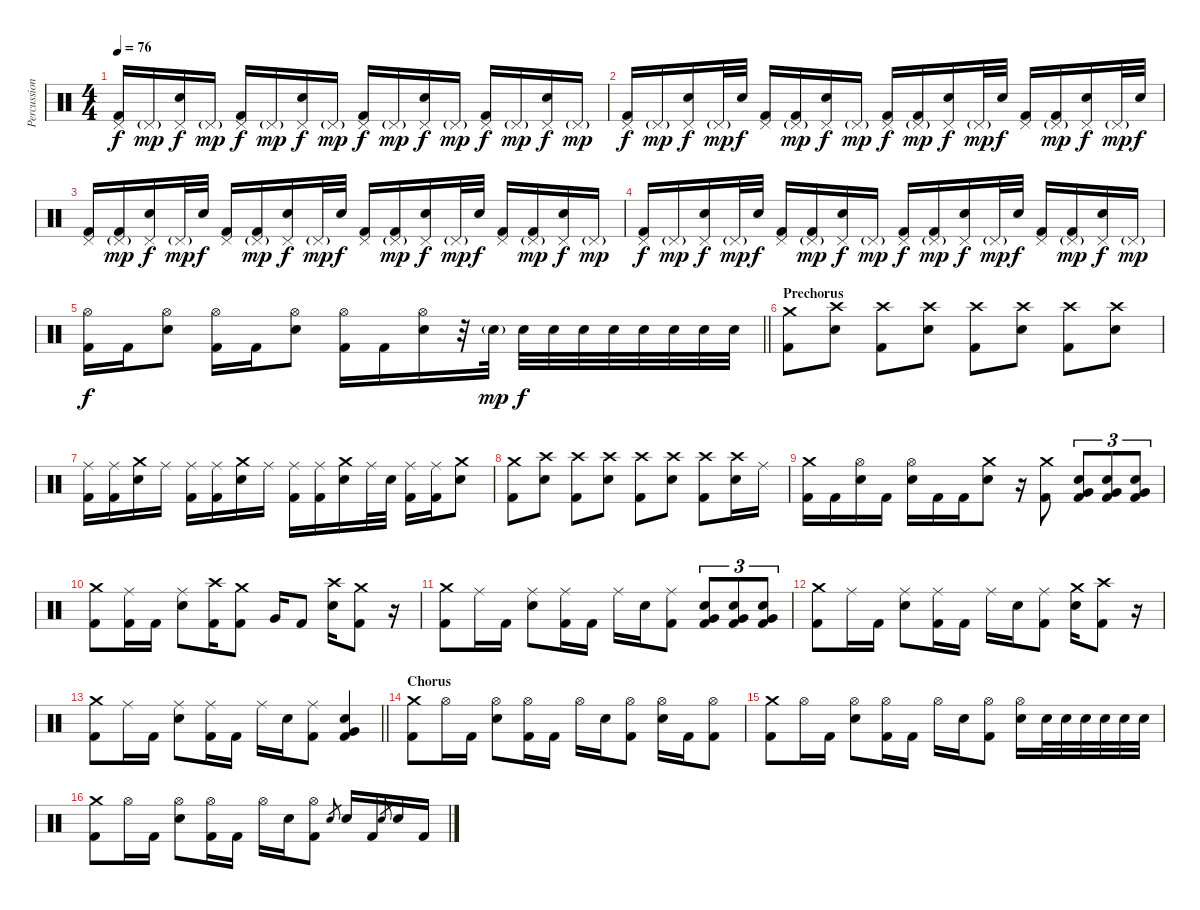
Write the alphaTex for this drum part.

\track ("Percussion" "Percussion") {instrument percussion}
\staff {score}
\articulation defaults
\ts (4 4)
\tempo 76
\clef neutral
\ks c
("Pedal Hi-Hat (hit)" "Kick (hit) 2").16{dy f} "Pedal Hi-Hat (hit)"{g}.16{dy mp} ("Pedal Hi-Hat (hit)" "Electric Snare (hit)").16{dy f} "Pedal Hi-Hat (hit)"{g}.16{dy mp} ("Pedal Hi-Hat (hit)" "Kick (hit) 2").16{dy f} "Pedal Hi-Hat (hit)"{g}.16{dy mp} ("Pedal Hi-Hat (hit)" "Electric Snare (hit)").16{dy f} "Pedal Hi-Hat (hit)"{g}.16{dy mp} ("Pedal Hi-Hat (hit)" "Kick (hit) 2").16{dy f} "Pedal Hi-Hat (hit)"{g}.16{dy mp} ("Pedal Hi-Hat (hit)" "Electric Snare (hit)").16{dy f} "Pedal Hi-Hat (hit)"{g}.16{dy mp} ("Pedal Hi-Hat (hit)" "Kick (hit) 2").16{dy f} "Pedal Hi-Hat (hit)"{g}.16{dy mp} ("Pedal Hi-Hat (hit)" "Electric Snare (hit)").16{dy f} "Pedal Hi-Hat (hit)"{g}.16{dy mp} |
("Pedal Hi-Hat (hit)" "Kick (hit) 2").16{dy f} "Pedal Hi-Hat (hit)"{g}.16{dy mp} ("Pedal Hi-Hat (hit)" "Electric Snare (hit)").16{dy f} "Pedal Hi-Hat (hit)"{g}.32{dy mp} "Electric Snare (hit)".32{dy f} ("Pedal Hi-Hat (hit)" "Kick (hit) 2").16 ("Pedal Hi-Hat (hit)"{g} "Kick (hit) 2").16{dy mp} ("Pedal Hi-Hat (hit)" "Electric Snare (hit)").16{dy f} "Pedal Hi-Hat (hit)"{g}.16{dy mp} ("Pedal Hi-Hat (hit)" "Kick (hit) 2").16{dy f} ("Pedal Hi-Hat (hit)"{g} "Kick (hit) 2").16{dy mp} ("Pedal Hi-Hat (hit)" "Electric Snare (hit)").16{dy f} "Pedal Hi-Hat (hit)"{g}.32{dy mp} "Electric Snare (hit)".32{dy f} ("Pedal Hi-Hat (hit)" "Kick (hit) 2").16 ("Pedal Hi-Hat (hit)"{g} "Kick (hit) 2").16{dy mp} ("Pedal Hi-Hat (hit)" "Electric Snare (hit)").16{dy f} "Pedal Hi-Hat (hit)"{g}.32{dy mp} "Electric Snare (hit)".32{dy f} |
("Pedal Hi-Hat (hit)" "Kick (hit) 2").16 ("Pedal Hi-Hat (hit)"{g} "Kick (hit) 2").16{dy mp} ("Pedal Hi-Hat (hit)" "Electric Snare (hit)").16{dy f} "Pedal Hi-Hat (hit)"{g}.32{dy mp} "Electric Snare (hit)".32{dy f} ("Pedal Hi-Hat (hit)" "Kick (hit) 2").16 ("Pedal Hi-Hat (hit)"{g} "Kick (hit) 2").16{dy mp} ("Pedal Hi-Hat (hit)" "Electric Snare (hit)").16{dy f} "Pedal Hi-Hat (hit)"{g}.32{dy mp} "Electric Snare (hit)".32{dy f} ("Pedal Hi-Hat (hit)" "Kick (hit) 2").16 ("Pedal Hi-Hat (hit)"{g} "Kick (hit) 2").16{dy mp} ("Pedal Hi-Hat (hit)" "Electric Snare (hit)").16{dy f} "Pedal Hi-Hat (hit)"{g}.32{dy mp} "Electric Snare (hit)".32{dy f} ("Pedal Hi-Hat (hit)" "Kick (hit) 2").16 ("Pedal Hi-Hat (hit)"{g} "Kick (hit) 2").16{dy mp} ("Pedal Hi-Hat (hit)" "Electric Snare (hit)").16{dy f} "Pedal Hi-Hat (hit)"{g}.16{dy mp} |
("Pedal Hi-Hat (hit)" "Kick (hit) 2").16{dy f} "Pedal Hi-Hat (hit)"{g}.16{dy mp} ("Pedal Hi-Hat (hit)" "Electric Snare (hit)").16{dy f} "Pedal Hi-Hat (hit)"{g}.32{dy mp} "Electric Snare (hit)".32{dy f} ("Pedal Hi-Hat (hit)" "Kick (hit) 2").16 ("Pedal Hi-Hat (hit)"{g} "Kick (hit) 2").16{dy mp} ("Pedal Hi-Hat (hit)" "Electric Snare (hit)").16{dy f} "Pedal Hi-Hat (hit)"{g}.16{dy mp} ("Pedal Hi-Hat (hit)" "Kick (hit) 2").16{dy f} ("Pedal Hi-Hat (hit)"{g} "Kick (hit) 2").16{dy mp} ("Pedal Hi-Hat (hit)" "Electric Snare (hit)").16{dy f} "Pedal Hi-Hat (hit)"{g}.32{dy mp} "Electric Snare (hit)".32{dy f} ("Pedal Hi-Hat (hit)" "Kick (hit) 2").16 ("Pedal Hi-Hat (hit)"{g} "Kick (hit) 2").16{dy mp} ("Pedal Hi-Hat (hit)" "Electric Snare (hit)").16{dy f} "Pedal Hi-Hat (hit)"{g}.16{dy mp} |
\barLineRight lightlight
("Hi-Hat (open)" "Kick (hit) 2").16{dy f} "Kick (hit) 2".16 ("Hi-Hat (open)" "Electric Snare (hit)").8 ("Hi-Hat (open)" "Kick (hit) 2").16 "Kick (hit) 2".16 ("Hi-Hat (open)" "Electric Snare (hit)").8 ("Hi-Hat (open)" "Kick (hit) 2").16 "Kick (hit) 2".16 ("Hi-Hat (open)" "Electric Snare (hit)").16 r.32 "Electric Snare (hit)"{g}.32{dy mp} "Electric Snare (hit)".32{dy f} "Electric Snare (hit)".32 "Electric Snare (hit)".32 "Electric Snare (hit)".32 "Electric Snare (hit)".32 "Electric Snare (hit)".32 "Electric Snare (hit)".32 "Electric Snare (hit)".32 |
\section ("" "Prechorus")
("Crash medium (hit)" "Kick (hit) 2").8 ("Crash high (hit)" "Electric Snare (hit)").8 ("Crash high (hit)" "Kick (hit) 2").8 ("Crash high (hit)" "Electric Snare (hit)").8 ("Crash high (hit)" "Kick (hit) 2").8 ("Crash high (hit)" "Electric Snare (hit)").8 ("Crash high (hit)" "Kick (hit) 2").8 ("Crash high (hit)" "Electric Snare (hit)").8 |
("Ride (middle)" "Kick (hit) 2").16 ("Ride (middle)" "Kick (hit) 2").16 ("Crash medium (hit)" "Electric Snare (hit)").16 "Ride (middle)".16 ("Ride (middle)" "Kick (hit) 2").16 ("Ride (middle)" "Kick (hit) 2").16 ("Crash medium (hit)" "Electric Snare (hit)").16 "Ride (middle)".16 ("Ride (middle)" "Kick (hit) 2").16 ("Ride (middle)" "Kick (hit) 2").16 ("Crash medium (hit)" "Electric Snare (hit)").16 "Ride (middle)".32 "Electric Snare (hit)".32 ("Ride (middle)" "Kick (hit) 2").16 ("Ride (middle)" "Kick (hit) 2").16 ("Crash medium (hit)" "Electric Snare (hit)").8 |
("Crash medium (hit)" "Kick (hit) 2").8 ("Crash high (hit)" "Electric Snare (hit)").8 ("Crash high (hit)" "Kick (hit) 2").8 ("Crash high (hit)" "Electric Snare (hit)").8 ("Crash high (hit)" "Kick (hit) 2").8 ("Crash high (hit)" "Electric Snare (hit)").8 ("Crash high (hit)" "Kick (hit) 2").8 ("Crash high (hit)" "Electric Snare (hit)").16 "Ride (middle)".16 |
("Crash medium (hit)" "Kick (hit) 2").16 "Kick (hit) 2".16 ("Hi-Hat (open)" "Electric Snare (hit)").16 "Kick (hit) 2".16 ("Hi-Hat (open)" "Electric Snare (hit)").16 "Kick (hit) 2".16 "Kick (hit) 2".16 ("Crash medium (hit)" "Electric Snare (hit)").8 r.16 ("Crash medium (hit)" "Kick (hit) 2").8 ("Very Low Tom (hit)" "Electric Snare (hit)" "Kick (hit) 2").8{tu (3 2)} ("Very Low Tom (hit)" "Electric Snare (hit)" "Kick (hit) 2").8{tu (3 2)} ("Very Low Tom (hit)" "Electric Snare (hit)" "Kick (hit) 2").8{tu (3 2)} |
("Crash medium (hit)" "Kick (hit) 2").8 ("Ride (middle)" "Kick (hit) 2").16 "Kick (hit) 2".16 ("Ride (middle)" "Electric Snare (hit)").8 ("Crash high (hit)" "Kick (hit) 2").16 ("Crash medium (hit)" "Kick (hit) 2").8 "Very Low Tom (hit)".16 "Kick (hit) 2".8 ("Crash high (hit)" "Electric Snare (hit)").16 ("Crash medium (hit)" "Kick (hit) 2").8 r.16 |
("Crash medium (hit)" "Kick (hit) 2").8 "Ride (middle)".16 "Kick (hit) 2".16 ("Ride (middle)" "Electric Snare (hit)").8 ("Ride (middle)" "Kick (hit) 2").16 "Kick (hit) 2".16 "Ride (middle)".16 "Electric Snare (hit)".16 ("Ride (middle)" "Kick (hit) 2").8 ("Very Low Tom (hit)" "Electric Snare (hit)" "Kick (hit) 2").8{tu (3 2)} ("Very Low Tom (hit)" "Electric Snare (hit)" "Kick (hit) 2").8{tu (3 2)} ("Very Low Tom (hit)" "Electric Snare (hit)" "Kick (hit) 2").8{tu (3 2)} |
("Crash medium (hit)" "Kick (hit) 2").8 "Ride (middle)".16 "Kick (hit) 2".16 ("Ride (middle)" "Electric Snare (hit)").8 ("Ride (middle)" "Kick (hit) 2").16 "Kick (hit) 2".16 "Ride (middle)".16 "Electric Snare (hit)".16 ("Ride (middle)" "Kick (hit) 2").8 ("Crash medium (hit)" "Electric Snare (hit)").16 ("Crash high (hit)" "Kick (hit) 2").8 r.16 |
\barLineRight lightlight
("Crash medium (hit)" "Kick (hit) 2").8 "Ride (middle)".16 "Kick (hit) 2".16 ("Ride (middle)" "Electric Snare (hit)").8 ("Ride (middle)" "Kick (hit) 2").16 "Kick (hit) 2".16 "Ride (middle)".16 "Electric Snare (hit)".16 ("Ride (middle)" "Kick (hit) 2").8 ("Very Low Tom (hit)" "Electric Snare (hit)" "Kick (hit) 2").4 |
\section ("" "Chorus")
("Crash medium (hit)" "Kick (hit) 2").8 "Hi-Hat (open)".16 "Kick (hit) 2".16 ("Hi-Hat (open)" "Electric Snare (hit)").8 ("Hi-Hat (open)" "Kick (hit) 2").16 "Kick (hit) 2".16 "Hi-Hat (open)".16 "Electric Snare (hit)".16 ("Hi-Hat (open)" "Kick (hit) 2").8 ("Hi-Hat (open)" "Electric Snare (hit)").16 "Kick (hit) 2".16 ("Hi-Hat (open)" "Kick (hit) 2").8 |
("Crash medium (hit)" "Kick (hit) 2").8 "Hi-Hat (open)".16 "Kick (hit) 2".16 ("Hi-Hat (open)" "Electric Snare (hit)").8 ("Hi-Hat (open)" "Kick (hit) 2").16 "Kick (hit) 2".16 "Hi-Hat (open)".16 "Electric Snare (hit)".16 ("Hi-Hat (open)" "Kick (hit) 2").8 ("Hi-Hat (open)" "Electric Snare (hit)").16 "Electric Snare (hit)".32 "Electric Snare (hit)".32 "Electric Snare (hit)".32 "Electric Snare (hit)".32 "Electric Snare (hit)".32 "Electric Snare (hit)".32 |
("Crash medium (hit)" "Kick (hit) 2").8 "Hi-Hat (open)".16 "Kick (hit) 2".16 ("Hi-Hat (open)" "Electric Snare (hit)").8 ("Hi-Hat (open)" "Kick (hit) 2").16 "Kick (hit) 2".16 "Hi-Hat (open)".16 "Electric Snare (hit)".16 ("Hi-Hat (open)" "Kick (hit) 2").8 "Electric Snare (hit)".8{gr} "Electric Snare (hit)".16 "Kick (hit) 2".16 "Electric Snare (hit)".8{gr} "Electric Snare (hit)".16 "Kick (hit) 2".16
